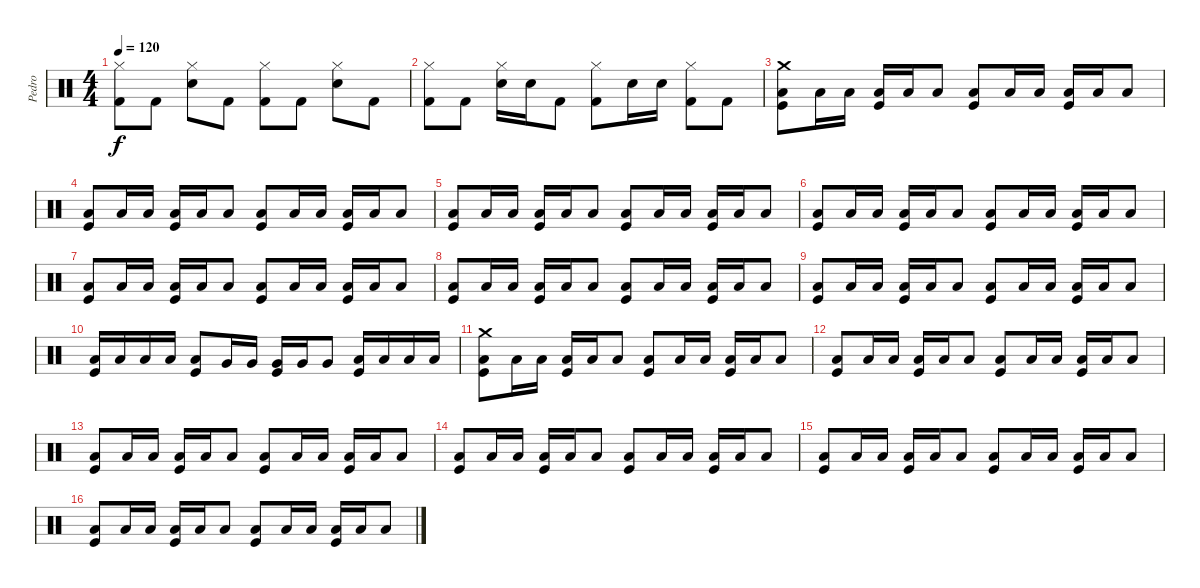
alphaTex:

\track ("Pedro" "Pedro") {instrument percussion}
\staff {score}
\articulation defaults
\ts (4 4)
\tempo 120
\clef neutral
\ks c
("Hi-Hat (closed)" "Kick (hit) 2").8{dy f} "Kick (hit) 2".8 ("Hi-Hat (closed)" "Snare (hit) 2").8 "Kick (hit) 2".8 ("Hi-Hat (closed)" "Kick (hit) 2").8 "Kick (hit) 2".8 ("Hi-Hat (closed)" "Snare (hit) 2").8 "Kick (hit) 2".8 |
("Kick (hit) 2" "Hi-Hat (closed)").8 "Kick (hit) 2".8 ("Hi-Hat (closed)" "Snare (hit) 2").16 "Snare (hit) 2".16 "Kick (hit) 2".8 ("Kick (hit) 2" "Hi-Hat (closed)").8 "Snare (hit) 2".16 "Snare (hit) 2".16 ("Kick (hit) 2" "Hi-Hat (closed)").8 "Kick (hit) 2".8 |
("Crash medium (hit)" "Low Floor Tom (hit)" "Kick (hit)").8 "Low Floor Tom (hit)".16 "Low Floor Tom (hit)".16 ("Low Floor Tom (hit)" "Kick (hit)").16 "Low Floor Tom (hit)".16 "Low Floor Tom (hit)".8 ("Low Floor Tom (hit)" "Kick (hit)").8 "Low Floor Tom (hit)".16 "Low Floor Tom (hit)".16 ("Low Floor Tom (hit)" "Kick (hit)").16 "Low Floor Tom (hit)".16 "Low Floor Tom (hit)".8 |
("Low Floor Tom (hit)" "Kick (hit)").8 "Low Floor Tom (hit)".16 "Low Floor Tom (hit)".16 ("Low Floor Tom (hit)" "Kick (hit)").16 "Low Floor Tom (hit)".16 "Low Floor Tom (hit)".8 ("Low Floor Tom (hit)" "Kick (hit)").8 "Low Floor Tom (hit)".16 "Low Floor Tom (hit)".16 ("Low Floor Tom (hit)" "Kick (hit)").16 "Low Floor Tom (hit)".16 "Low Floor Tom (hit)".8 |
("Low Floor Tom (hit)" "Kick (hit)").8 "Low Floor Tom (hit)".16 "Low Floor Tom (hit)".16 ("Low Floor Tom (hit)" "Kick (hit)").16 "Low Floor Tom (hit)".16 "Low Floor Tom (hit)".8 ("Low Floor Tom (hit)" "Kick (hit)").8 "Low Floor Tom (hit)".16 "Low Floor Tom (hit)".16 ("Low Floor Tom (hit)" "Kick (hit)").16 "Low Floor Tom (hit)".16 "Low Floor Tom (hit)".8 |
("Low Floor Tom (hit)" "Kick (hit)").8 "Low Floor Tom (hit)".16 "Low Floor Tom (hit)".16 ("Low Floor Tom (hit)" "Kick (hit)").16 "Low Floor Tom (hit)".16 "Low Floor Tom (hit)".8 ("Low Floor Tom (hit)" "Kick (hit)").8 "Low Floor Tom (hit)".16 "Low Floor Tom (hit)".16 ("Low Floor Tom (hit)" "Kick (hit)").16 "Low Floor Tom (hit)".16 "Low Floor Tom (hit)".8 |
("Low Floor Tom (hit)" "Kick (hit)").8 "Low Floor Tom (hit)".16 "Low Floor Tom (hit)".16 ("Low Floor Tom (hit)" "Kick (hit)").16 "Low Floor Tom (hit)".16 "Low Floor Tom (hit)".8 ("Low Floor Tom (hit)" "Kick (hit)").8 "Low Floor Tom (hit)".16 "Low Floor Tom (hit)".16 ("Low Floor Tom (hit)" "Kick (hit)").16 "Low Floor Tom (hit)".16 "Low Floor Tom (hit)".8 |
("Low Floor Tom (hit)" "Kick (hit)").8 "Low Floor Tom (hit)".16 "Low Floor Tom (hit)".16 ("Low Floor Tom (hit)" "Kick (hit)").16 "Low Floor Tom (hit)".16 "Low Floor Tom (hit)".8 ("Low Floor Tom (hit)" "Kick (hit)").8 "Low Floor Tom (hit)".16 "Low Floor Tom (hit)".16 ("Low Floor Tom (hit)" "Kick (hit)").16 "Low Floor Tom (hit)".16 "Low Floor Tom (hit)".8 |
("Low Floor Tom (hit)" "Kick (hit)").8 "Low Floor Tom (hit)".16 "Low Floor Tom (hit)".16 ("Low Floor Tom (hit)" "Kick (hit)").16 "Low Floor Tom (hit)".16 "Low Floor Tom (hit)".8 ("Low Floor Tom (hit)" "Kick (hit)").8 "Low Floor Tom (hit)".16 "Low Floor Tom (hit)".16 ("Low Floor Tom (hit)" "Kick (hit)").16 "Low Floor Tom (hit)".16 "Low Floor Tom (hit)".8 |
("Low Tom (hit)" "Kick (hit)").16 "Low Tom (hit)".16 "Low Tom (hit)".16 "Low Tom (hit)".16 ("Low Tom (hit)" "Kick (hit)").8 "Very Low Tom (hit)".16 "Very Low Tom (hit)".16 ("Very Low Tom (hit)" "Kick (hit)").16 "Very Low Tom (hit)".16 "Very Low Tom (hit)".8 ("Low Tom (hit)" "Kick (hit)").16 "Low Tom (hit)".16 "Low Tom (hit)".16 "Low Tom (hit)".16 |
("Crash medium (hit)" "Low Floor Tom (hit)" "Kick (hit)").8 "Low Floor Tom (hit)".16 "Low Floor Tom (hit)".16 ("Low Floor Tom (hit)" "Kick (hit)").16 "Low Floor Tom (hit)".16 "Low Floor Tom (hit)".8 ("Low Floor Tom (hit)" "Kick (hit)").8 "Low Floor Tom (hit)".16 "Low Floor Tom (hit)".16 ("Low Floor Tom (hit)" "Kick (hit)").16 "Low Floor Tom (hit)".16 "Low Floor Tom (hit)".8 |
("Low Floor Tom (hit)" "Kick (hit)").8 "Low Floor Tom (hit)".16 "Low Floor Tom (hit)".16 ("Low Floor Tom (hit)" "Kick (hit)").16 "Low Floor Tom (hit)".16 "Low Floor Tom (hit)".8 ("Low Floor Tom (hit)" "Kick (hit)").8 "Low Floor Tom (hit)".16 "Low Floor Tom (hit)".16 ("Low Floor Tom (hit)" "Kick (hit)").16 "Low Floor Tom (hit)".16 "Low Floor Tom (hit)".8 |
("Low Floor Tom (hit)" "Kick (hit)").8 "Low Floor Tom (hit)".16 "Low Floor Tom (hit)".16 ("Low Floor Tom (hit)" "Kick (hit)").16 "Low Floor Tom (hit)".16 "Low Floor Tom (hit)".8 ("Low Floor Tom (hit)" "Kick (hit)").8 "Low Floor Tom (hit)".16 "Low Floor Tom (hit)".16 ("Low Floor Tom (hit)" "Kick (hit)").16 "Low Floor Tom (hit)".16 "Low Floor Tom (hit)".8 |
("Low Floor Tom (hit)" "Kick (hit)").8 "Low Floor Tom (hit)".16 "Low Floor Tom (hit)".16 ("Low Floor Tom (hit)" "Kick (hit)").16 "Low Floor Tom (hit)".16 "Low Floor Tom (hit)".8 ("Low Floor Tom (hit)" "Kick (hit)").8 "Low Floor Tom (hit)".16 "Low Floor Tom (hit)".16 ("Low Floor Tom (hit)" "Kick (hit)").16 "Low Floor Tom (hit)".16 "Low Floor Tom (hit)".8 |
("Low Floor Tom (hit)" "Kick (hit)").8 "Low Floor Tom (hit)".16 "Low Floor Tom (hit)".16 ("Low Floor Tom (hit)" "Kick (hit)").16 "Low Floor Tom (hit)".16 "Low Floor Tom (hit)".8 ("Low Floor Tom (hit)" "Kick (hit)").8 "Low Floor Tom (hit)".16 "Low Floor Tom (hit)".16 ("Low Floor Tom (hit)" "Kick (hit)").16 "Low Floor Tom (hit)".16 "Low Floor Tom (hit)".8 |
("Low Floor Tom (hit)" "Kick (hit)").8 "Low Floor Tom (hit)".16 "Low Floor Tom (hit)".16 ("Low Floor Tom (hit)" "Kick (hit)").16 "Low Floor Tom (hit)".16 "Low Floor Tom (hit)".8 ("Low Floor Tom (hit)" "Kick (hit)").8 "Low Floor Tom (hit)".16 "Low Floor Tom (hit)".16 ("Low Floor Tom (hit)" "Kick (hit)").16 "Low Floor Tom (hit)".16 "Low Floor Tom (hit)".8
